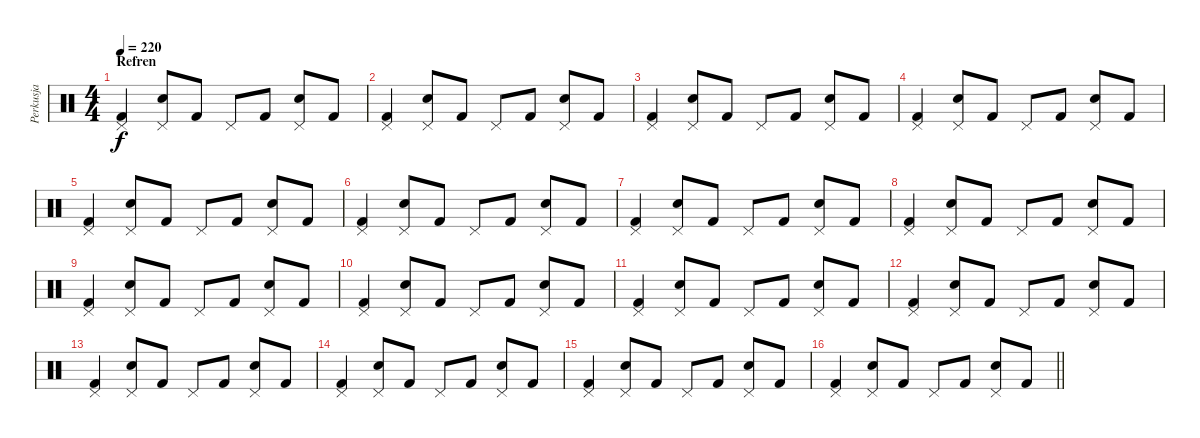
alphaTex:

\track ("Perkusja" "Perkusja") {instrument percussion}
\staff {score}
\articulation defaults
\ts (4 4)
\section ("" "Refren")
\tempo 220
\clef neutral
\ks c
("Pedal Hi-Hat (hit)" "Kick (hit) 2").4{dy f} ("Pedal Hi-Hat (hit)" "Snare (hit) 2").8 "Kick (hit) 2".8 "Pedal Hi-Hat (hit)".8 "Kick (hit) 2".8 ("Pedal Hi-Hat (hit)" "Snare (hit) 2").8 "Kick (hit) 2".8 |
("Pedal Hi-Hat (hit)" "Kick (hit) 2").4 ("Pedal Hi-Hat (hit)" "Snare (hit) 2").8 "Kick (hit) 2".8 "Pedal Hi-Hat (hit)".8 "Kick (hit) 2".8 ("Pedal Hi-Hat (hit)" "Snare (hit) 2").8 "Kick (hit) 2".8 |
("Pedal Hi-Hat (hit)" "Kick (hit) 2").4 ("Pedal Hi-Hat (hit)" "Snare (hit) 2").8 "Kick (hit) 2".8 "Pedal Hi-Hat (hit)".8 "Kick (hit) 2".8 ("Pedal Hi-Hat (hit)" "Snare (hit) 2").8 "Kick (hit) 2".8 |
("Pedal Hi-Hat (hit)" "Kick (hit) 2").4 ("Pedal Hi-Hat (hit)" "Snare (hit) 2").8 "Kick (hit) 2".8 "Pedal Hi-Hat (hit)".8 "Kick (hit) 2".8 ("Pedal Hi-Hat (hit)" "Snare (hit) 2").8 "Kick (hit) 2".8 |
("Pedal Hi-Hat (hit)" "Kick (hit) 2").4 ("Pedal Hi-Hat (hit)" "Snare (hit) 2").8 "Kick (hit) 2".8 "Pedal Hi-Hat (hit)".8 "Kick (hit) 2".8 ("Pedal Hi-Hat (hit)" "Snare (hit) 2").8 "Kick (hit) 2".8 |
("Pedal Hi-Hat (hit)" "Kick (hit) 2").4 ("Pedal Hi-Hat (hit)" "Snare (hit) 2").8 "Kick (hit) 2".8 "Pedal Hi-Hat (hit)".8 "Kick (hit) 2".8 ("Pedal Hi-Hat (hit)" "Snare (hit) 2").8 "Kick (hit) 2".8 |
("Pedal Hi-Hat (hit)" "Kick (hit) 2").4 ("Pedal Hi-Hat (hit)" "Snare (hit) 2").8 "Kick (hit) 2".8 "Pedal Hi-Hat (hit)".8 "Kick (hit) 2".8 ("Pedal Hi-Hat (hit)" "Snare (hit) 2").8 "Kick (hit) 2".8 |
("Pedal Hi-Hat (hit)" "Kick (hit) 2").4 ("Pedal Hi-Hat (hit)" "Snare (hit) 2").8 "Kick (hit) 2".8 "Pedal Hi-Hat (hit)".8 "Kick (hit) 2".8 ("Pedal Hi-Hat (hit)" "Snare (hit) 2").8 "Kick (hit) 2".8 |
("Pedal Hi-Hat (hit)" "Kick (hit) 2").4 ("Pedal Hi-Hat (hit)" "Snare (hit) 2").8 "Kick (hit) 2".8 "Pedal Hi-Hat (hit)".8 "Kick (hit) 2".8 ("Pedal Hi-Hat (hit)" "Snare (hit) 2").8 "Kick (hit) 2".8 |
("Pedal Hi-Hat (hit)" "Kick (hit) 2").4 ("Pedal Hi-Hat (hit)" "Snare (hit) 2").8 "Kick (hit) 2".8 "Pedal Hi-Hat (hit)".8 "Kick (hit) 2".8 ("Pedal Hi-Hat (hit)" "Snare (hit) 2").8 "Kick (hit) 2".8 |
("Pedal Hi-Hat (hit)" "Kick (hit) 2").4 ("Pedal Hi-Hat (hit)" "Snare (hit) 2").8 "Kick (hit) 2".8 "Pedal Hi-Hat (hit)".8 "Kick (hit) 2".8 ("Pedal Hi-Hat (hit)" "Snare (hit) 2").8 "Kick (hit) 2".8 |
("Pedal Hi-Hat (hit)" "Kick (hit) 2").4 ("Pedal Hi-Hat (hit)" "Snare (hit) 2").8 "Kick (hit) 2".8 "Pedal Hi-Hat (hit)".8 "Kick (hit) 2".8 ("Pedal Hi-Hat (hit)" "Snare (hit) 2").8 "Kick (hit) 2".8 |
("Pedal Hi-Hat (hit)" "Kick (hit) 2").4 ("Pedal Hi-Hat (hit)" "Snare (hit) 2").8 "Kick (hit) 2".8 "Pedal Hi-Hat (hit)".8 "Kick (hit) 2".8 ("Pedal Hi-Hat (hit)" "Snare (hit) 2").8 "Kick (hit) 2".8 |
("Pedal Hi-Hat (hit)" "Kick (hit) 2").4 ("Pedal Hi-Hat (hit)" "Snare (hit) 2").8 "Kick (hit) 2".8 "Pedal Hi-Hat (hit)".8 "Kick (hit) 2".8 ("Pedal Hi-Hat (hit)" "Snare (hit) 2").8 "Kick (hit) 2".8 |
("Pedal Hi-Hat (hit)" "Kick (hit) 2").4 ("Pedal Hi-Hat (hit)" "Snare (hit) 2").8 "Kick (hit) 2".8 "Pedal Hi-Hat (hit)".8 "Kick (hit) 2".8 ("Pedal Hi-Hat (hit)" "Snare (hit) 2").8 "Kick (hit) 2".8 |
\barLineRight lightlight
("Pedal Hi-Hat (hit)" "Kick (hit) 2").4 ("Pedal Hi-Hat (hit)" "Snare (hit) 2").8 "Kick (hit) 2".8 "Pedal Hi-Hat (hit)".8 "Kick (hit) 2".8 ("Pedal Hi-Hat (hit)" "Snare (hit) 2").8 "Kick (hit) 2".8
